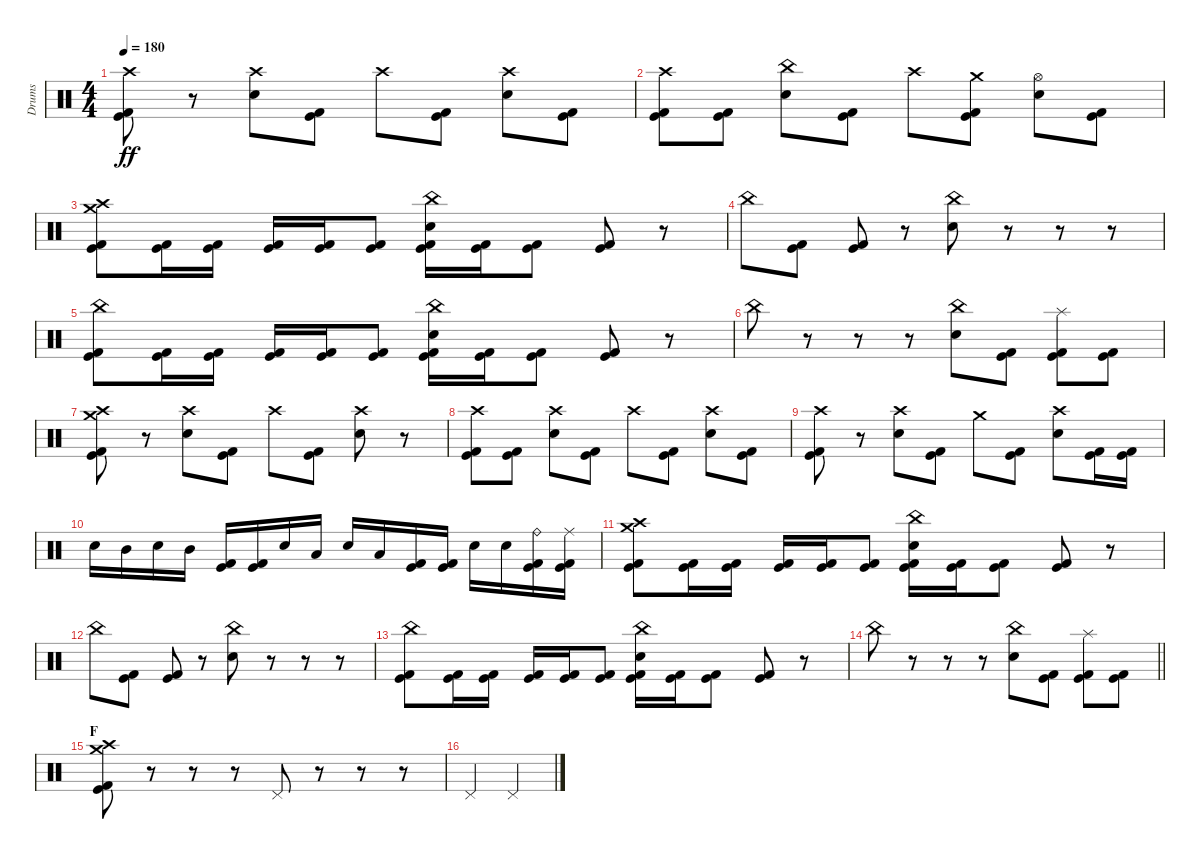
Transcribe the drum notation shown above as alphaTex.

\track ("Drums" "Drums") {instrument percussion}
\staff {score}
\articulation defaults
\ts (4 4)
\tempo 180
\clef neutral
\ks c
("Crash high (hit)" "Kick (hit)" "Kick (hit) 2").8{dy ff} r.8 ("Crash high (hit)" "Electric Snare (hit)").8 ("Kick (hit)" "Kick (hit) 2").8 "Crash high (hit)".8 ("Kick (hit)" "Kick (hit) 2").8 ("Crash high (hit)" "Electric Snare (hit)").8 ("Kick (hit)" "Kick (hit) 2").8 |
("Crash high (hit)" "Kick (hit)" "Kick (hit) 2").8 ("Kick (hit)" "Kick (hit) 2").8 ("China (hit)" "Electric Snare (hit)").8 ("Kick (hit)" "Kick (hit) 2").8 "Crash high (hit)".8 ("Crash medium (hit)" "Kick (hit)" "Kick (hit) 2").8 ("Hi-Hat (open)" "Electric Snare (hit)").8 ("Kick (hit)" "Kick (hit) 2").8 |
("Crash medium (hit)" "Crash high (hit)" "Kick (hit)" "Kick (hit) 2").8 ("Kick (hit)" "Kick (hit) 2").16 ("Kick (hit)" "Kick (hit) 2").16 ("Kick (hit)" "Kick (hit) 2").16 ("Kick (hit)" "Kick (hit) 2").16 ("Kick (hit)" "Kick (hit) 2").8 ("China (hit)" "Electric Snare (hit)" "Kick (hit)" "Kick (hit) 2").16 ("Kick (hit)" "Kick (hit) 2").16 ("Kick (hit)" "Kick (hit) 2").8 ("Kick (hit)" "Kick (hit) 2").8 r.8 |
"China (hit)".8 ("Kick (hit)" "Kick (hit) 2").8 ("Kick (hit)" "Kick (hit) 2").8 r.8 ("China (hit)" "Electric Snare (hit)").8 r.8 r.8 r.8 |
("China (hit)" "Kick (hit)" "Kick (hit) 2").8 ("Kick (hit)" "Kick (hit) 2").16 ("Kick (hit)" "Kick (hit) 2").16 ("Kick (hit)" "Kick (hit) 2").16 ("Kick (hit)" "Kick (hit) 2").16 ("Kick (hit)" "Kick (hit) 2").8 ("China (hit)" "Electric Snare (hit)" "Kick (hit)" "Kick (hit) 2").16 ("Kick (hit)" "Kick (hit) 2").16 ("Kick (hit)" "Kick (hit) 2").8 ("Kick (hit)" "Kick (hit) 2").8 r.8 |
"China (hit)".8 r.8 r.8 r.8 ("China (hit)" "Electric Snare (hit)").8 ("Kick (hit)" "Kick (hit) 2").8 ("Splash (hit)" "Kick (hit)" "Kick (hit) 2").8 ("Kick (hit)" "Kick (hit) 2").8 |
("Crash medium (hit)" "Crash high (hit)" "Kick (hit)" "Kick (hit) 2").8 r.8 ("Crash high (hit)" "Electric Snare (hit)").8 ("Kick (hit)" "Kick (hit) 2").8 "Crash high (hit)".8 ("Kick (hit)" "Kick (hit) 2").8 ("Crash high (hit)" "Electric Snare (hit)").8 r.8 |
("Crash high (hit)" "Kick (hit)" "Kick (hit) 2").8 ("Kick (hit)" "Kick (hit) 2").8 ("Crash high (hit)" "Electric Snare (hit)").8 ("Kick (hit)" "Kick (hit) 2").8 "Crash high (hit)".8 ("Kick (hit)" "Kick (hit) 2").8 ("Crash high (hit)" "Electric Snare (hit)").8 ("Kick (hit)" "Kick (hit) 2").8 |
("Crash high (hit)" "Kick (hit)" "Kick (hit) 2").8 r.8 ("Crash high (hit)" "Electric Snare (hit)").8 ("Kick (hit)" "Kick (hit) 2").8 "Crash medium (hit)".8 ("Kick (hit)" "Kick (hit) 2").8 ("Crash high (hit)" "Electric Snare (hit)").8 ("Kick (hit)" "Kick (hit) 2").16 ("Kick (hit)" "Kick (hit) 2").16 |
"Electric Snare (hit)".16 "Mid Tom (hit)".16 "Electric Snare (hit)".16 "Mid Tom (hit)".16 ("Kick (hit)" "Kick (hit) 2").16 ("Kick (hit)" "Kick (hit) 2").16 "Electric Snare (hit)".16 "Low Tom (hit)".16 "Electric Snare (hit)".16 "Low Tom (hit)".16 ("Kick (hit)" "Kick (hit) 2").16 ("Kick (hit)" "Kick (hit) 2").16 "Electric Snare (hit)".16 "Electric Snare (hit)".16 ("Ride (bell)" "Kick (hit)" "Kick (hit) 2").16 ("Ride (middle)" "Kick (hit)" "Kick (hit) 2").16 |
("Crash medium (hit)" "Crash high (hit)" "Kick (hit)" "Kick (hit) 2").8 ("Kick (hit)" "Kick (hit) 2").16 ("Kick (hit)" "Kick (hit) 2").16 ("Kick (hit)" "Kick (hit) 2").16 ("Kick (hit)" "Kick (hit) 2").16 ("Kick (hit)" "Kick (hit) 2").8 ("China (hit)" "Electric Snare (hit)" "Kick (hit)" "Kick (hit) 2").16 ("Kick (hit)" "Kick (hit) 2").16 ("Kick (hit)" "Kick (hit) 2").8 ("Kick (hit)" "Kick (hit) 2").8 r.8 |
"China (hit)".8 ("Kick (hit)" "Kick (hit) 2").8 ("Kick (hit)" "Kick (hit) 2").8 r.8 ("China (hit)" "Electric Snare (hit)").8 r.8 r.8 r.8 |
("China (hit)" "Kick (hit)" "Kick (hit) 2").8 ("Kick (hit)" "Kick (hit) 2").16 ("Kick (hit)" "Kick (hit) 2").16 ("Kick (hit)" "Kick (hit) 2").16 ("Kick (hit)" "Kick (hit) 2").16 ("Kick (hit)" "Kick (hit) 2").8 ("China (hit)" "Electric Snare (hit)" "Kick (hit)" "Kick (hit) 2").16 ("Kick (hit)" "Kick (hit) 2").16 ("Kick (hit)" "Kick (hit) 2").8 ("Kick (hit)" "Kick (hit) 2").8 r.8 |
\barLineRight lightlight "China (hit)".8
r.8 r.8 r.8 ("China (hit)" "Electric Snare (hit)").8 ("Kick (hit)" "Kick (hit) 2").8 ("Splash (hit)" "Kick (hit)" "Kick (hit) 2").8 ("Kick (hit)" "Kick (hit) 2").8 |
\section ("" "F")
("Crash medium (hit)" "Crash high (hit)" "Kick (hit)" "Kick (hit) 2").8 r.8 r.8 r.8 "Pedal Hi-Hat (hit)".8 r.8 r.8 r.8 |
"Pedal Hi-Hat (hit)".2 "Pedal Hi-Hat (hit)".2
